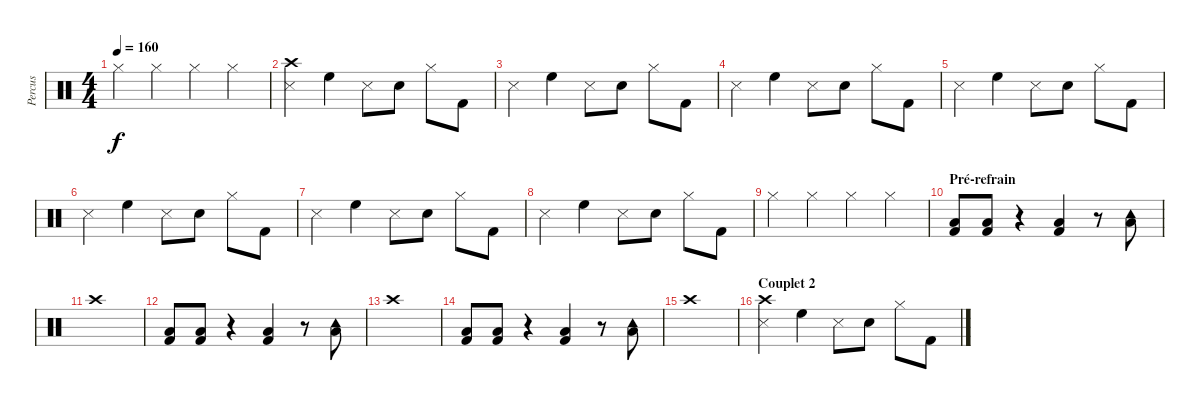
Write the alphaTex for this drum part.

\track ("Percus" "Percus") {instrument percussion}
\staff {score}
\articulation defaults
\ts (4 4)
\tempo 160
\clef neutral
\ks c "Hi-Hat (closed)".4{dy f} "Hi-Hat (closed)".4 "Hi-Hat (closed)".4 "Hi-Hat (closed)".4
|
("Crash high (hit)" "Snare (side stick) 3").4 "High Floor Tom (hit)".4 "Snare (side stick) 3".8 "Snare (hit) 2".8 "Hi-Hat (closed)".8 "Kick (hit) 2".8 |
"Snare (side stick) 3".4 "High Floor Tom (hit)".4 "Snare (side stick) 3".8 "Snare (hit) 2".8 "Hi-Hat (closed)".8 "Kick (hit) 2".8 |
"Snare (side stick) 3".4 "High Floor Tom (hit)".4 "Snare (side stick) 3".8 "Snare (hit) 2".8 "Hi-Hat (closed)".8 "Kick (hit) 2".8 |
"Snare (side stick) 3".4 "High Floor Tom (hit)".4 "Snare (side stick) 3".8 "Snare (hit) 2".8 "Hi-Hat (closed)".8 "Kick (hit) 2".8 |
"Snare (side stick) 3".4 "High Floor Tom (hit)".4 "Snare (side stick) 3".8 "Snare (hit) 2".8 "Hi-Hat (closed)".8 "Kick (hit) 2".8 |
"Snare (side stick) 3".4 "High Floor Tom (hit)".4 "Snare (side stick) 3".8 "Snare (hit) 2".8 "Hi-Hat (closed)".8 "Kick (hit) 2".8 |
"Snare (side stick) 3".4 "High Floor Tom (hit)".4 "Snare (side stick) 3".8 "Snare (hit) 2".8 "Hi-Hat (closed)".8 "Kick (hit) 2".8 |
"Hi-Hat (closed)".4 "Hi-Hat (closed)".4 "Hi-Hat (closed)".4 "Hi-Hat (closed)".4 |
\section ("" "Pré-refrain")
("Kick (hit) 2" "Low Tom (hit)").8 ("Kick (hit) 2" "Low Tom (hit)").8 r.4 ("Kick (hit) 2" "Low Tom (hit)").4 r.8 ("Tambourine (hit)" "Low Floor Tom (hit)").8 |
"Crash high (hit)".1 |
("Kick (hit) 2" "Low Tom (hit)").8 ("Kick (hit) 2" "Low Tom (hit)").8 r.4 ("Kick (hit) 2" "Low Tom (hit)").4 r.8 ("Tambourine (hit)" "Low Floor Tom (hit)").8 |
"Crash high (hit)".1 |
("Kick (hit) 2" "Low Tom (hit)").8 ("Kick (hit) 2" "Low Tom (hit)").8 r.4 ("Kick (hit) 2" "Low Tom (hit)").4 r.8 ("Tambourine (hit)" "Low Floor Tom (hit)").8 |
"Crash high (hit)".1 |
\section ("" "Couplet 2")
("Crash high (hit)" "Snare (side stick) 3").4 "High Floor Tom (hit)".4 "Snare (side stick) 3".8 "Snare (hit) 2".8 "Hi-Hat (closed)".8 "Kick (hit) 2".8
